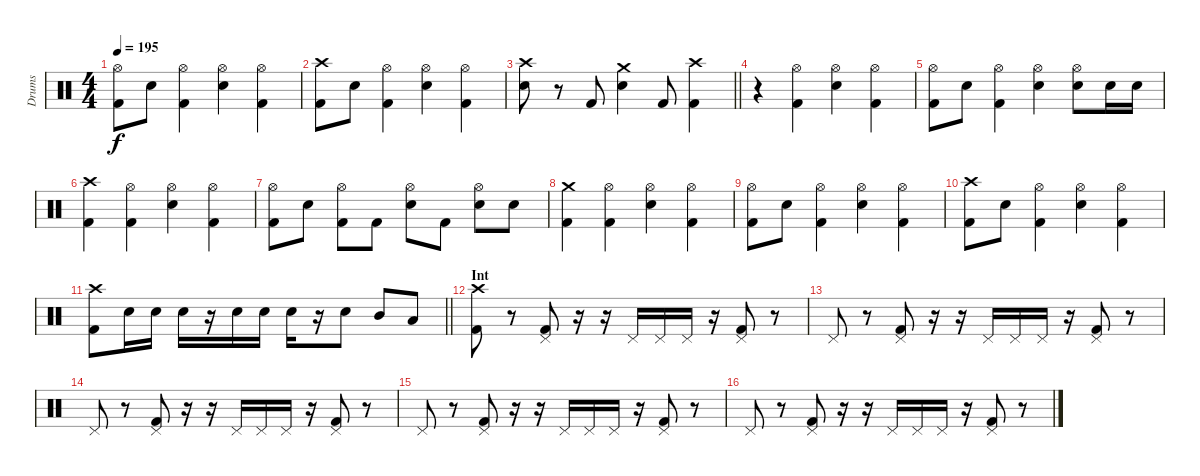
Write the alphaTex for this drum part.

\track ("Drums" "Drums") {instrument percussion}
\staff {score}
\articulation defaults
\ts (4 4)
\tempo 195
\clef neutral
\ks c
("Hi-Hat (open)" "Kick (hit) 2").8{dy f} "Electric Snare (hit)".8 ("Hi-Hat (open)" "Kick (hit) 2").4 ("Hi-Hat (open)" "Electric Snare (hit)").4 ("Hi-Hat (open)" "Kick (hit) 2").4 |
("Crash high (hit)" "Kick (hit) 2").8 "Electric Snare (hit)".8 ("Hi-Hat (open)" "Kick (hit) 2").4 ("Hi-Hat (open)" "Electric Snare (hit)").4 ("Hi-Hat (open)" "Kick (hit) 2").4 |
\barLineRight lightlight
("Crash high (hit)" "Electric Snare (hit)").8 r.8 "Kick (hit) 2".8 ("Crash medium (hit)" "Electric Snare (hit)").4 "Kick (hit) 2".8 ("Crash high (hit)" "Kick (hit) 2").4 |
r.4 ("Hi-Hat (open)" "Kick (hit) 2").4 ("Hi-Hat (open)" "Electric Snare (hit)").4 ("Hi-Hat (open)" "Kick (hit) 2").4 |
("Hi-Hat (open)" "Kick (hit) 2").8 "Electric Snare (hit)".8 ("Hi-Hat (open)" "Kick (hit) 2").4 ("Hi-Hat (open)" "Electric Snare (hit)").4 ("Hi-Hat (open)" "Electric Snare (hit)").8 "Electric Snare (hit)".16 "Electric Snare (hit)".16 |
("Crash high (hit)" "Kick (hit) 2").4 ("Hi-Hat (open)" "Kick (hit) 2").4 ("Hi-Hat (open)" "Electric Snare (hit)").4 ("Hi-Hat (open)" "Kick (hit) 2").4 |
("Hi-Hat (open)" "Kick (hit) 2").8 "Electric Snare (hit)".8 ("Hi-Hat (open)" "Kick (hit) 2").8 "Kick (hit) 2".8 ("Hi-Hat (open)" "Electric Snare (hit)").8 "Kick (hit) 2".8 ("Hi-Hat (open)" "Electric Snare (hit)").8 "Electric Snare (hit)".8 |
("Crash medium (hit)" "Kick (hit) 2").4 ("Hi-Hat (open)" "Kick (hit) 2").4 ("Hi-Hat (open)" "Electric Snare (hit)").4 ("Hi-Hat (open)" "Kick (hit) 2").4 |
("Hi-Hat (open)" "Kick (hit) 2").8 "Electric Snare (hit)".8 ("Hi-Hat (open)" "Kick (hit) 2").4 ("Hi-Hat (open)" "Electric Snare (hit)").4 ("Hi-Hat (open)" "Kick (hit) 2").4 |
("Crash high (hit)" "Kick (hit) 2").8 "Electric Snare (hit)".8 ("Hi-Hat (open)" "Kick (hit) 2").4 ("Hi-Hat (open)" "Electric Snare (hit)").4 ("Hi-Hat (open)" "Kick (hit) 2").4 |
\barLineRight lightlight
("Crash high (hit)" "Kick (hit) 2").8 "Electric Snare (hit)".16 "Electric Snare (hit)".16 "Electric Snare (hit)".16 r.16 "Electric Snare (hit)".16 "Electric Snare (hit)".16 "Electric Snare (hit)".16 r.16 "Electric Snare (hit)".8 "Mid Tom (hit)".8 "Low Tom (hit)".8 |
\section ("" "Int")
("Crash high (hit)" "Kick (hit) 2").8 r.8 ("Pedal Hi-Hat (hit)" "Kick (hit) 2").8 r.16 r.16 "Pedal Hi-Hat (hit)".16 "Pedal Hi-Hat (hit)".16 "Pedal Hi-Hat (hit)".16 r.16 ("Pedal Hi-Hat (hit)" "Kick (hit) 2").8 r.8 |
"Pedal Hi-Hat (hit)".8 r.8 ("Pedal Hi-Hat (hit)" "Kick (hit) 2").8 r.16 r.16 "Pedal Hi-Hat (hit)".16 "Pedal Hi-Hat (hit)".16 "Pedal Hi-Hat (hit)".16 r.16 ("Pedal Hi-Hat (hit)" "Kick (hit) 2").8 r.8 |
"Pedal Hi-Hat (hit)".8 r.8 ("Pedal Hi-Hat (hit)" "Kick (hit) 2").8 r.16 r.16 "Pedal Hi-Hat (hit)".16 "Pedal Hi-Hat (hit)".16 "Pedal Hi-Hat (hit)".16 r.16 ("Pedal Hi-Hat (hit)" "Kick (hit) 2").8 r.8 |
"Pedal Hi-Hat (hit)".8 r.8 ("Pedal Hi-Hat (hit)" "Kick (hit) 2").8 r.16 r.16 "Pedal Hi-Hat (hit)".16 "Pedal Hi-Hat (hit)".16 "Pedal Hi-Hat (hit)".16 r.16 ("Pedal Hi-Hat (hit)" "Kick (hit) 2").8 r.8 |
"Pedal Hi-Hat (hit)".8 r.8 ("Pedal Hi-Hat (hit)" "Kick (hit) 2").8 r.16 r.16 "Pedal Hi-Hat (hit)".16 "Pedal Hi-Hat (hit)".16 "Pedal Hi-Hat (hit)".16 r.16 ("Pedal Hi-Hat (hit)" "Kick (hit) 2").8 r.8
